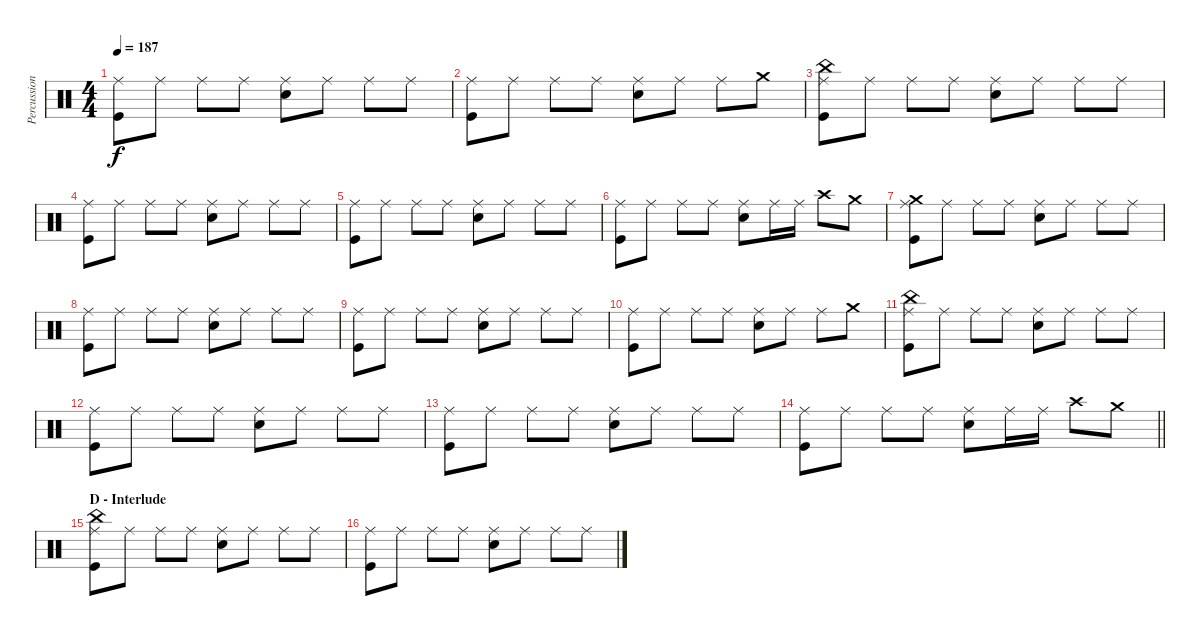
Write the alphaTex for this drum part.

\track ("Percussions" "Percussion") {instrument percussion}
\staff {score}
\articulation defaults
\ts (4 4)
\tempo 187
\clef neutral
\ks c
("Ride (middle)" "Kick (hit)").8{dy f} "Ride (middle)".8 "Ride (middle)".8 "Ride (middle)".8 ("Ride (middle)" "Snare (hit) 2").8 "Ride (middle)".8 "Ride (middle)".8 "Ride (middle)".8 |
("Ride (middle)" "Kick (hit)").8 "Ride (middle)".8 "Ride (middle)".8 "Ride (middle)".8 ("Ride (middle)" "Snare (hit) 2").8 "Ride (middle)".8 "Ride (middle)".8 "Crash medium (hit)".8 |
("China (hit)" "Ride (middle)" "Kick (hit)").8 "Ride (middle)".8 "Ride (middle)".8 "Ride (middle)".8 ("Ride (middle)" "Snare (hit) 2").8 "Ride (middle)".8 "Ride (middle)".8 "Ride (middle)".8 |
("Ride (middle)" "Kick (hit)").8 "Ride (middle)".8 "Ride (middle)".8 "Ride (middle)".8 ("Ride (middle)" "Snare (hit) 2").8 "Ride (middle)".8 "Ride (middle)".8 "Ride (middle)".8 |
("Ride (middle)" "Kick (hit)").8 "Ride (middle)".8 "Ride (middle)".8 "Ride (middle)".8 ("Ride (middle)" "Snare (hit) 2").8 "Ride (middle)".8 "Ride (middle)".8 "Ride (middle)".8 |
("Ride (middle)" "Kick (hit)").8 "Ride (middle)".8 "Ride (middle)".8 "Ride (middle)".8 ("Ride (middle)" "Snare (hit) 2").8 "Ride (middle)".16 "Ride (middle)".16 "Crash high (hit)".8 "Crash medium (hit)".8 |
("Crash medium (hit)" "Ride (middle)" "Kick (hit)").8 "Ride (middle)".8 "Ride (middle)".8 "Ride (middle)".8 ("Ride (middle)" "Snare (hit) 2").8 "Ride (middle)".8 "Ride (middle)".8 "Ride (middle)".8 |
("Ride (middle)" "Kick (hit)").8 "Ride (middle)".8 "Ride (middle)".8 "Ride (middle)".8 ("Ride (middle)" "Snare (hit) 2").8 "Ride (middle)".8 "Ride (middle)".8 "Ride (middle)".8 |
("Ride (middle)" "Kick (hit)").8 "Ride (middle)".8 "Ride (middle)".8 "Ride (middle)".8 ("Ride (middle)" "Snare (hit) 2").8 "Ride (middle)".8 "Ride (middle)".8 "Ride (middle)".8 |
("Ride (middle)" "Kick (hit)").8 "Ride (middle)".8 "Ride (middle)".8 "Ride (middle)".8 ("Ride (middle)" "Snare (hit) 2").8 "Ride (middle)".8 "Ride (middle)".8 "Crash medium (hit)".8 |
("China (hit)" "Ride (middle)" "Kick (hit)").8 "Ride (middle)".8 "Ride (middle)".8 "Ride (middle)".8 ("Ride (middle)" "Snare (hit) 2").8 "Ride (middle)".8 "Ride (middle)".8 "Ride (middle)".8 |
("Ride (middle)" "Kick (hit)").8 "Ride (middle)".8 "Ride (middle)".8 "Ride (middle)".8 ("Ride (middle)" "Snare (hit) 2").8 "Ride (middle)".8 "Ride (middle)".8 "Ride (middle)".8 |
("Ride (middle)" "Kick (hit)").8 "Ride (middle)".8 "Ride (middle)".8 "Ride (middle)".8 ("Ride (middle)" "Snare (hit) 2").8 "Ride (middle)".8 "Ride (middle)".8 "Ride (middle)".8 |
\barLineRight lightlight
("Ride (middle)" "Kick (hit)").8 "Ride (middle)".8 "Ride (middle)".8 "Ride (middle)".8 ("Ride (middle)" "Snare (hit) 2").8 "Ride (middle)".16 "Ride (middle)".16 "Crash high (hit)".8 "Crash medium (hit)".8 |
\section ("" "D - Interlude")
("China (hit)" "Ride (middle)" "Kick (hit)").8 "Ride (middle)".8 "Ride (middle)".8 "Ride (middle)".8 ("Ride (middle)" "Snare (hit) 2").8 "Ride (middle)".8 "Ride (middle)".8 "Ride (middle)".8 |
("Ride (middle)" "Kick (hit)").8 "Ride (middle)".8 "Ride (middle)".8 "Ride (middle)".8 ("Ride (middle)" "Snare (hit) 2").8 "Ride (middle)".8 "Ride (middle)".8 "Ride (middle)".8
